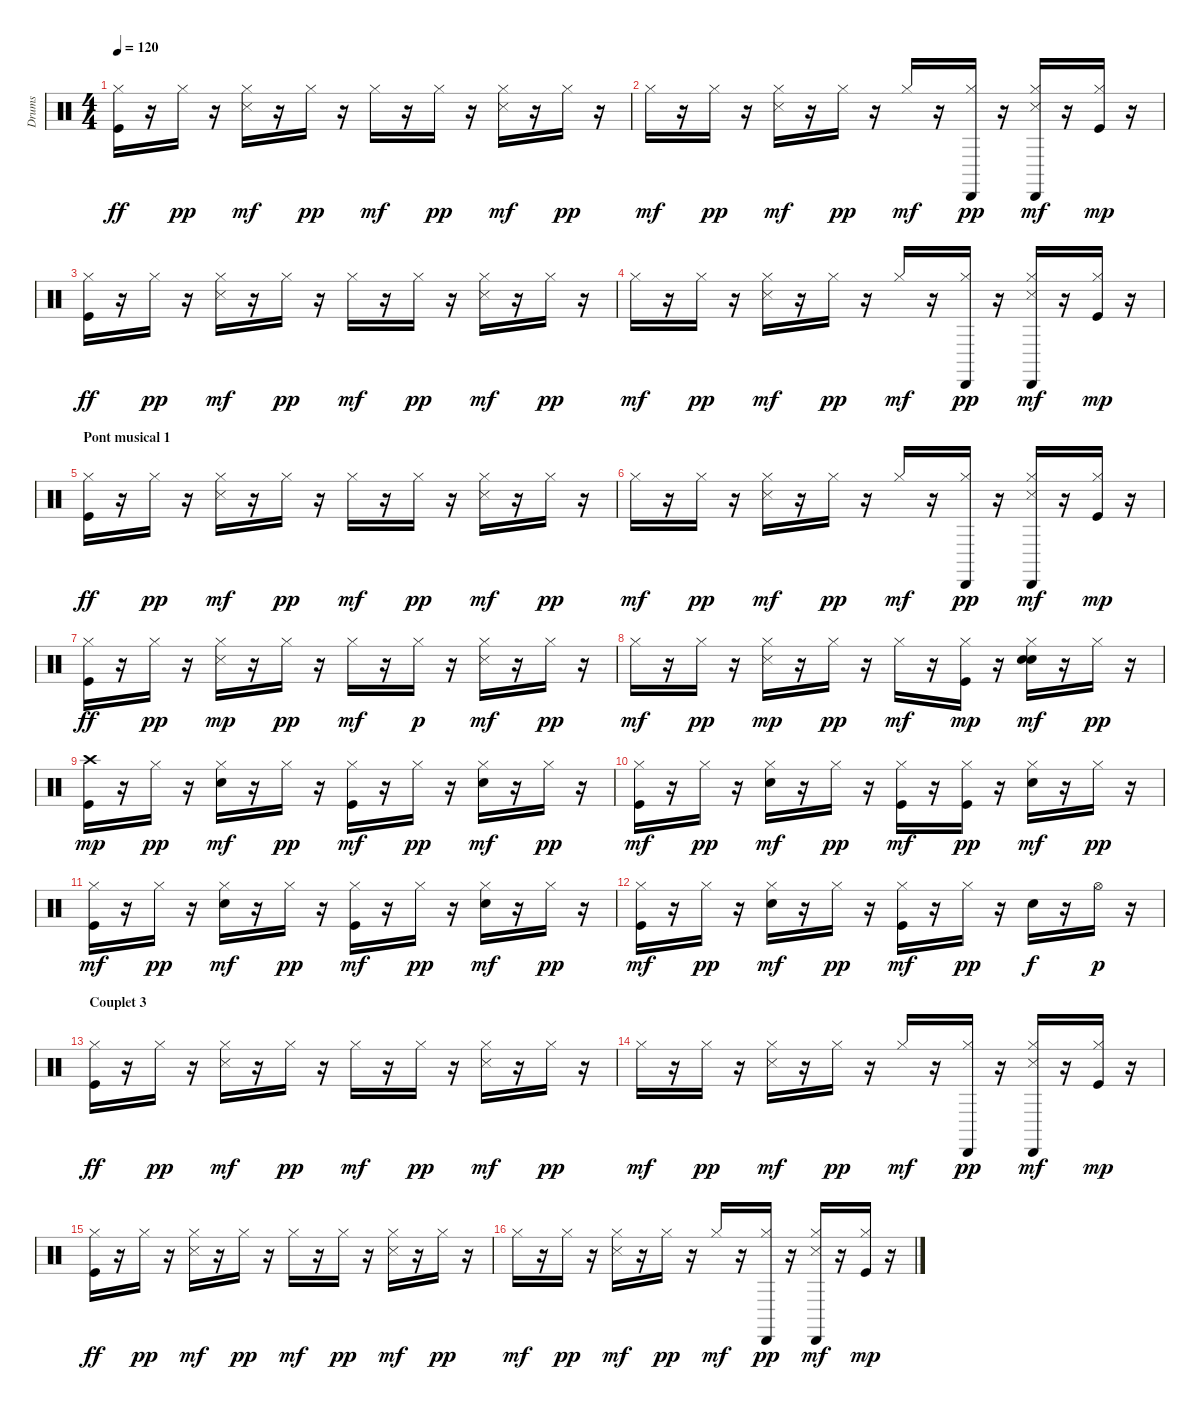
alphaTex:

\track ("Drums" "Drums") {instrument percussion}
\staff {score}
\articulation defaults
\ts (4 4)
\tempo 120
\clef neutral
\ks c
("Hi-Hat (closed)" "Kick (hit)").16{dy ff} r.16 "Hi-Hat (closed)".16{dy pp} r.16 ("Snare (side stick) 3" "Hi-Hat (closed)").16{dy mf} r.16 "Hi-Hat (closed)".16{dy pp} r.16 "Hi-Hat (closed)".16{dy mf} r.16 "Hi-Hat (closed)".16{dy pp} r.16 ("Snare (side stick) 3" "Hi-Hat (closed)").16{dy mf} r.16 "Hi-Hat (closed)".16{dy pp} r.16 |
"Hi-Hat (closed)".16{dy mf} r.16 "Hi-Hat (closed)".16{dy pp} r.16 ("Snare (side stick) 3" "Hi-Hat (closed)").16{dy mf} r.16 "Hi-Hat (closed)".16{dy pp} r.16 "Hi-Hat (closed)".16{dy mf} r.16 ("Cabasa (hit)" "Hi-Hat (closed)").16{dy pp} r.16 ("Cabasa (hit)" "Snare (side stick) 3" "Hi-Hat (closed)").16{dy mf} r.16 ("Hi-Hat (closed)" "Kick (hit)").16{dy mp} r.16 |
("Hi-Hat (closed)" "Kick (hit)").16{dy ff} r.16 "Hi-Hat (closed)".16{dy pp} r.16 ("Snare (side stick) 3" "Hi-Hat (closed)").16{dy mf} r.16 "Hi-Hat (closed)".16{dy pp} r.16 "Hi-Hat (closed)".16{dy mf} r.16 "Hi-Hat (closed)".16{dy pp} r.16 ("Snare (side stick) 3" "Hi-Hat (closed)").16{dy mf} r.16 "Hi-Hat (closed)".16{dy pp} r.16 |
"Hi-Hat (closed)".16{dy mf} r.16 "Hi-Hat (closed)".16{dy pp} r.16 ("Snare (side stick) 3" "Hi-Hat (closed)").16{dy mf} r.16 "Hi-Hat (closed)".16{dy pp} r.16 "Hi-Hat (closed)".16{dy mf} r.16 ("Cabasa (hit)" "Hi-Hat (closed)").16{dy pp} r.16 ("Cabasa (hit)" "Snare (side stick) 3" "Hi-Hat (closed)").16{dy mf} r.16 ("Hi-Hat (closed)" "Kick (hit)").16{dy mp} r.16 |
\section ("" "Pont musical 1")
("Hi-Hat (closed)" "Kick (hit)").16{dy ff} r.16 "Hi-Hat (closed)".16{dy pp} r.16 ("Snare (side stick) 3" "Hi-Hat (closed)").16{dy mf} r.16 "Hi-Hat (closed)".16{dy pp} r.16 "Hi-Hat (closed)".16{dy mf} r.16 "Hi-Hat (closed)".16{dy pp} r.16 ("Snare (side stick) 3" "Hi-Hat (closed)").16{dy mf} r.16 "Hi-Hat (closed)".16{dy pp} r.16 |
"Hi-Hat (closed)".16{dy mf} r.16 "Hi-Hat (closed)".16{dy pp} r.16 ("Snare (side stick) 3" "Hi-Hat (closed)").16{dy mf} r.16 "Hi-Hat (closed)".16{dy pp} r.16 "Hi-Hat (closed)".16{dy mf} r.16 ("Cabasa (hit)" "Hi-Hat (closed)").16{dy pp} r.16 ("Cabasa (hit)" "Snare (side stick) 3" "Hi-Hat (closed)").16{dy mf} r.16 ("Hi-Hat (closed)" "Kick (hit)").16{dy mp} r.16 |
("Hi-Hat (closed)" "Kick (hit)").16{dy ff} r.16 "Hi-Hat (closed)".16{dy pp} r.16 ("Snare (side stick) 3" "Hi-Hat (closed)").16{dy mp} r.16 "Hi-Hat (closed)".16{dy pp} r.16 "Hi-Hat (closed)".16{dy mf} r.16 "Hi-Hat (closed)".16{dy p} r.16 ("Snare (side stick) 3" "Hi-Hat (closed)").16{dy mf} r.16 "Hi-Hat (closed)".16{dy pp} r.16 |
"Hi-Hat (closed)".16{dy mf} r.16 "Hi-Hat (closed)".16{dy pp} r.16 ("Snare (side stick) 3" "Hi-Hat (closed)").16{dy mp} r.16 "Hi-Hat (closed)".16{dy pp} r.16 "Hi-Hat (closed)".16{dy mf} r.16 ("Hi-Hat (closed)" "Kick (hit)").16{dy mp} r.16 ("Hi-Hat (closed)" "Electric Snare (hit)" "Electric Snare (hit)").16{dy mf} r.16 "Hi-Hat (closed)".16{dy pp} r.16 |
("Crash high (hit)" "Kick (hit)").16{dy mp} r.16 "Hi-Hat (closed)".16{dy pp} r.16 ("Hi-Hat (closed)" "Electric Snare (hit)").16{dy mf} r.16 "Hi-Hat (closed)".16{dy pp} r.16 ("Hi-Hat (closed)" "Kick (hit)").16{dy mf} r.16 "Hi-Hat (closed)".16{dy pp} r.16 ("Hi-Hat (closed)" "Electric Snare (hit)").16{dy mf} r.16 "Hi-Hat (closed)".16{dy pp} r.16 |
("Hi-Hat (closed)" "Kick (hit)").16{dy mf} r.16 "Hi-Hat (closed)".16{dy pp} r.16 ("Hi-Hat (closed)" "Electric Snare (hit)").16{dy mf} r.16 "Hi-Hat (closed)".16{dy pp} r.16 ("Hi-Hat (closed)" "Kick (hit)").16{dy mf} r.16 ("Hi-Hat (closed)" "Kick (hit)").16{dy pp} r.16 ("Hi-Hat (closed)" "Electric Snare (hit)").16{dy mf} r.16 "Hi-Hat (closed)".16{dy pp} r.16 |
("Hi-Hat (closed)" "Kick (hit)").16{dy mf} r.16 "Hi-Hat (closed)".16{dy pp} r.16 ("Hi-Hat (closed)" "Electric Snare (hit)").16{dy mf} r.16 "Hi-Hat (closed)".16{dy pp} r.16 ("Hi-Hat (closed)" "Kick (hit)").16{dy mf} r.16 "Hi-Hat (closed)".16{dy pp} r.16 ("Hi-Hat (closed)" "Electric Snare (hit)").16{dy mf} r.16 "Hi-Hat (closed)".16{dy pp} r.16 |
("Hi-Hat (closed)" "Kick (hit)").16{dy mf} r.16 "Hi-Hat (closed)".16{dy pp} r.16 ("Hi-Hat (closed)" "Electric Snare (hit)").16{dy mf} r.16 "Hi-Hat (closed)".16{dy pp} r.16 ("Hi-Hat (closed)" "Kick (hit)").16{dy mf} r.16 "Hi-Hat (closed)".16{dy pp} r.16 "Electric Snare (hit)".16{dy f} r.16 "Hi-Hat (open)".16{dy p} r.16 |
\section ("" "Couplet 3")
("Hi-Hat (closed)" "Kick (hit)").16{dy ff} r.16 "Hi-Hat (closed)".16{dy pp} r.16 ("Snare (side stick) 3" "Hi-Hat (closed)").16{dy mf} r.16 "Hi-Hat (closed)".16{dy pp} r.16 "Hi-Hat (closed)".16{dy mf} r.16 "Hi-Hat (closed)".16{dy pp} r.16 ("Snare (side stick) 3" "Hi-Hat (closed)").16{dy mf} r.16 "Hi-Hat (closed)".16{dy pp} r.16 |
"Hi-Hat (closed)".16{dy mf} r.16 "Hi-Hat (closed)".16{dy pp} r.16 ("Snare (side stick) 3" "Hi-Hat (closed)").16{dy mf} r.16 "Hi-Hat (closed)".16{dy pp} r.16 "Hi-Hat (closed)".16{dy mf} r.16 ("Cabasa (hit)" "Hi-Hat (closed)").16{dy pp} r.16 ("Cabasa (hit)" "Snare (side stick) 3" "Hi-Hat (closed)").16{dy mf} r.16 ("Hi-Hat (closed)" "Kick (hit)").16{dy mp} r.16 |
("Hi-Hat (closed)" "Kick (hit)").16{dy ff} r.16 "Hi-Hat (closed)".16{dy pp} r.16 ("Snare (side stick) 3" "Hi-Hat (closed)").16{dy mf} r.16 "Hi-Hat (closed)".16{dy pp} r.16 "Hi-Hat (closed)".16{dy mf} r.16 "Hi-Hat (closed)".16{dy pp} r.16 ("Snare (side stick) 3" "Hi-Hat (closed)").16{dy mf} r.16 "Hi-Hat (closed)".16{dy pp} r.16 |
"Hi-Hat (closed)".16{dy mf} r.16 "Hi-Hat (closed)".16{dy pp} r.16 ("Snare (side stick) 3" "Hi-Hat (closed)").16{dy mf} r.16 "Hi-Hat (closed)".16{dy pp} r.16 "Hi-Hat (closed)".16{dy mf} r.16 ("Cabasa (hit)" "Hi-Hat (closed)").16{dy pp} r.16 ("Cabasa (hit)" "Snare (side stick) 3" "Hi-Hat (closed)").16{dy mf} r.16 ("Hi-Hat (closed)" "Kick (hit)").16{dy mp} r.16
